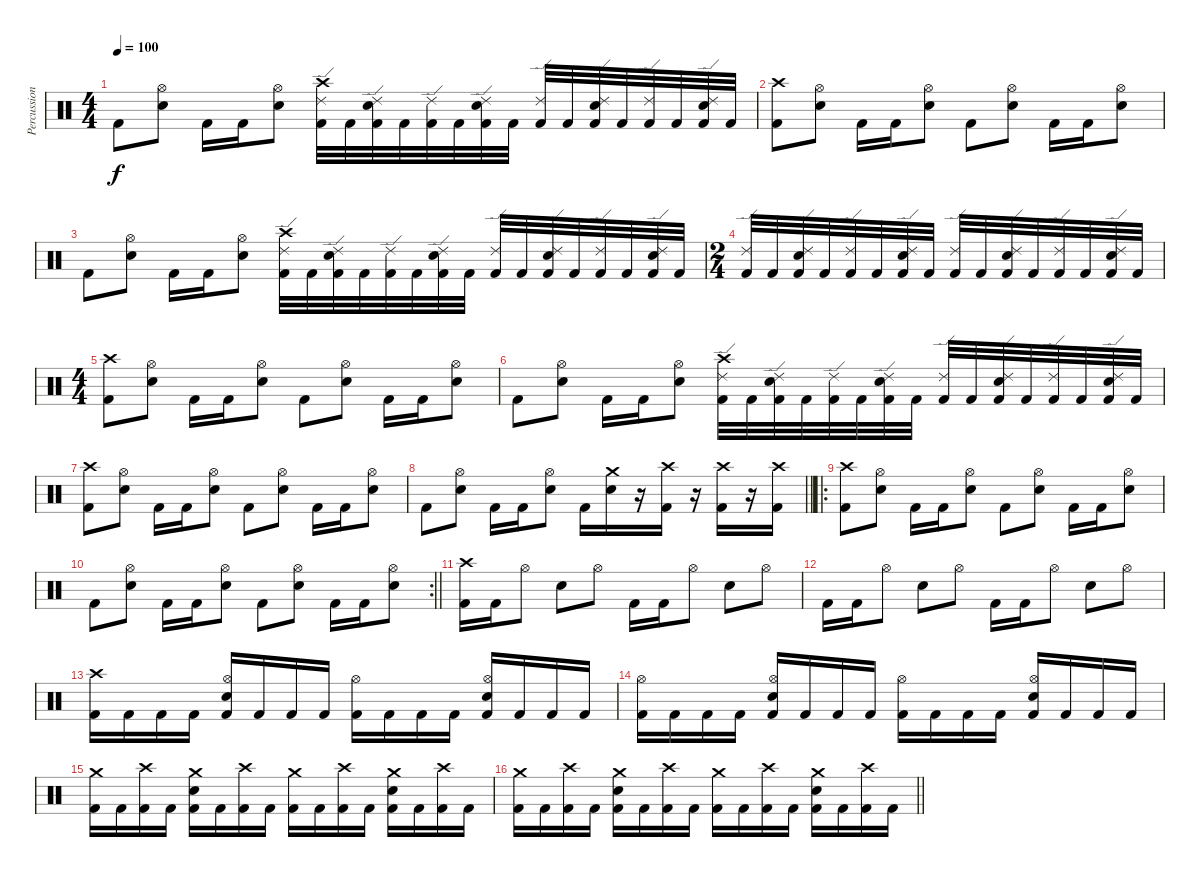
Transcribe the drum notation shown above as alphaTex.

\track ("Percussion" "Percussion") {instrument percussion}
\staff {score}
\articulation defaults
\ts (4 4)
\tempo 100
\clef neutral
\ks c "Kick (hit) 2".8{dy f}
("Hi-Hat (open)" "Snare (hit) 2").8 "Kick (hit) 2".16 "Kick (hit) 2".16 ("Hi-Hat (open)" "Snare (hit) 2").8 ("Ride (edge) 2" "Crash high (hit)" "Kick (hit) 2").32 "Kick (hit) 2".32 ("Ride (edge) 2" "Snare (hit) 2" "Kick (hit) 2").32 "Kick (hit) 2".32 ("Ride (edge) 2" "Kick (hit) 2").32 "Kick (hit) 2".32 ("Ride (edge) 2" "Snare (hit) 2" "Kick (hit) 2").32 "Kick (hit) 2".32 ("Ride (edge) 2" "Kick (hit) 2").32 "Kick (hit) 2".32 ("Ride (edge) 2" "Snare (hit) 2" "Kick (hit) 2").32 "Kick (hit) 2".32 ("Ride (edge) 2" "Kick (hit) 2").32 "Kick (hit) 2".32 ("Ride (edge) 2" "Snare (hit) 2" "Kick (hit) 2").32 "Kick (hit) 2".32 |
("Crash high (hit)" "Kick (hit) 2").8 ("Hi-Hat (open)" "Snare (hit) 2").8 "Kick (hit) 2".16 "Kick (hit) 2".16 ("Hi-Hat (open)" "Snare (hit) 2").8 "Kick (hit) 2".8 ("Hi-Hat (open)" "Snare (hit) 2").8 "Kick (hit) 2".16 "Kick (hit) 2".16 ("Hi-Hat (open)" "Snare (hit) 2").8 |
"Kick (hit) 2".8 ("Hi-Hat (open)" "Snare (hit) 2").8 "Kick (hit) 2".16 "Kick (hit) 2".16 ("Hi-Hat (open)" "Snare (hit) 2").8 ("Ride (edge) 2" "Crash high (hit)" "Kick (hit) 2").32 "Kick (hit) 2".32 ("Ride (edge) 2" "Snare (hit) 2" "Kick (hit) 2").32 "Kick (hit) 2".32 ("Ride (edge) 2" "Kick (hit) 2").32 "Kick (hit) 2".32 ("Ride (edge) 2" "Snare (hit) 2" "Kick (hit) 2").32 "Kick (hit) 2".32 ("Ride (edge) 2" "Kick (hit) 2").32 "Kick (hit) 2".32 ("Ride (edge) 2" "Snare (hit) 2" "Kick (hit) 2").32 "Kick (hit) 2".32 ("Ride (edge) 2" "Kick (hit) 2").32 "Kick (hit) 2".32 ("Ride (edge) 2" "Snare (hit) 2" "Kick (hit) 2").32 "Kick (hit) 2".32 |
\ts (2 4)
("Ride (edge) 2" "Kick (hit) 2").32 "Kick (hit) 2".32 ("Ride (edge) 2" "Snare (hit) 2" "Kick (hit) 2").32 "Kick (hit) 2".32 ("Ride (edge) 2" "Kick (hit) 2").32 "Kick (hit) 2".32 ("Ride (edge) 2" "Snare (hit) 2" "Kick (hit) 2").32 "Kick (hit) 2".32 ("Ride (edge) 2" "Kick (hit) 2").32 "Kick (hit) 2".32 ("Ride (edge) 2" "Snare (hit) 2" "Kick (hit) 2").32 "Kick (hit) 2".32 ("Ride (edge) 2" "Kick (hit) 2").32 "Kick (hit) 2".32 ("Ride (edge) 2" "Snare (hit) 2" "Kick (hit) 2").32 "Kick (hit) 2".32 |
\ts (4 4)
("Crash high (hit)" "Kick (hit) 2").8 ("Hi-Hat (open)" "Snare (hit) 2").8 "Kick (hit) 2".16 "Kick (hit) 2".16 ("Hi-Hat (open)" "Snare (hit) 2").8 "Kick (hit) 2".8 ("Hi-Hat (open)" "Snare (hit) 2").8 "Kick (hit) 2".16 "Kick (hit) 2".16 ("Hi-Hat (open)" "Snare (hit) 2").8 |
"Kick (hit) 2".8 ("Hi-Hat (open)" "Snare (hit) 2").8 "Kick (hit) 2".16 "Kick (hit) 2".16 ("Hi-Hat (open)" "Snare (hit) 2").8 ("Ride (edge) 2" "Crash high (hit)" "Kick (hit) 2").32 "Kick (hit) 2".32 ("Ride (edge) 2" "Snare (hit) 2" "Kick (hit) 2").32 "Kick (hit) 2".32 ("Ride (edge) 2" "Kick (hit) 2").32 "Kick (hit) 2".32 ("Ride (edge) 2" "Snare (hit) 2" "Kick (hit) 2").32 "Kick (hit) 2".32 ("Ride (edge) 2" "Kick (hit) 2").32 "Kick (hit) 2".32 ("Ride (edge) 2" "Snare (hit) 2" "Kick (hit) 2").32 "Kick (hit) 2".32 ("Ride (edge) 2" "Kick (hit) 2").32 "Kick (hit) 2".32 ("Ride (edge) 2" "Snare (hit) 2" "Kick (hit) 2").32 "Kick (hit) 2".32 |
("Crash high (hit)" "Kick (hit) 2").8 ("Hi-Hat (open)" "Snare (hit) 2").8 "Kick (hit) 2".16 "Kick (hit) 2".16 ("Hi-Hat (open)" "Snare (hit) 2").8 "Kick (hit) 2".8 ("Hi-Hat (open)" "Snare (hit) 2").8 "Kick (hit) 2".16 "Kick (hit) 2".16 ("Hi-Hat (open)" "Snare (hit) 2").8 |
\barLineRight lightlight "Kick (hit) 2".8
("Hi-Hat (open)" "Snare (hit) 2").8 "Kick (hit) 2".16 "Kick (hit) 2".16 ("Hi-Hat (open)" "Snare (hit) 2").8 "Kick (hit) 2".16 ("Snare (hit) 2" "Crash medium (hit)").16 r.16 ("Kick (hit) 2" "Crash high (hit)").16 r.16 ("Kick (hit) 2" "Crash high (hit)").16 r.16 ("Kick (hit) 2" "Crash high (hit)").16 |
\ro
\section ("" "")
("Crash high (hit)" "Kick (hit) 2").8 ("Hi-Hat (open)" "Snare (hit) 2").8 "Kick (hit) 2".16 "Kick (hit) 2".16 ("Hi-Hat (open)" "Snare (hit) 2").8 "Kick (hit) 2".8 ("Hi-Hat (open)" "Snare (hit) 2").8 "Kick (hit) 2".16 "Kick (hit) 2".16 ("Hi-Hat (open)" "Snare (hit) 2").8 |
\rc 2
\barLineRight lightlight "Kick (hit) 2".8
("Hi-Hat (open)" "Snare (hit) 2").8 "Kick (hit) 2".16 "Kick (hit) 2".16 ("Hi-Hat (open)" "Snare (hit) 2").8 "Kick (hit) 2".8 ("Hi-Hat (open)" "Snare (hit) 2").8 "Kick (hit) 2".16 "Kick (hit) 2".16 ("Hi-Hat (open)" "Snare (hit) 2").8 |
\section ("" "")
("Crash high (hit)" "Kick (hit) 2").16 "Kick (hit) 2".16 "Hi-Hat (open)".8 "Snare (hit) 2".8 "Hi-Hat (open)".8 "Kick (hit) 2".16 "Kick (hit) 2".16 "Hi-Hat (open)".8 "Snare (hit) 2".8 "Hi-Hat (open)".8 |
"Kick (hit) 2".16 "Kick (hit) 2".16 "Hi-Hat (open)".8 "Snare (hit) 2".8 "Hi-Hat (open)".8 "Kick (hit) 2".16 "Kick (hit) 2".16 "Hi-Hat (open)".8 "Snare (hit) 2".8 "Hi-Hat (open)".8 |
("Kick (hit) 2" "Crash high (hit)").16 "Kick (hit) 2".16 "Kick (hit) 2".16 "Kick (hit) 2".16 ("Kick (hit) 2" "Snare (hit) 2" "Hi-Hat (open)").16 "Kick (hit) 2".16 "Kick (hit) 2".16 "Kick (hit) 2".16 ("Kick (hit) 2" "Hi-Hat (open)").16 "Kick (hit) 2".16 "Kick (hit) 2".16 "Kick (hit) 2".16 ("Kick (hit) 2" "Snare (hit) 2" "Hi-Hat (open)").16 "Kick (hit) 2".16 "Kick (hit) 2".16 "Kick (hit) 2".16 |
("Kick (hit) 2" "Hi-Hat (open)").16 "Kick (hit) 2".16 "Kick (hit) 2".16 "Kick (hit) 2".16 ("Kick (hit) 2" "Snare (hit) 2" "Hi-Hat (open)").16 "Kick (hit) 2".16 "Kick (hit) 2".16 "Kick (hit) 2".16 ("Kick (hit) 2" "Hi-Hat (open)").16 "Kick (hit) 2".16 "Kick (hit) 2".16 "Kick (hit) 2".16 ("Kick (hit) 2" "Snare (hit) 2" "Hi-Hat (open)").16 "Kick (hit) 2".16 "Kick (hit) 2".16 "Kick (hit) 2".16 |
("Kick (hit) 2" "Crash medium (hit)").16 "Kick (hit) 2".16 ("Kick (hit) 2" "Crash high (hit)").16 "Kick (hit) 2".16 ("Kick (hit) 2" "Snare (hit) 2" "Crash medium (hit)").16 "Kick (hit) 2".16 ("Kick (hit) 2" "Crash high (hit)").16 "Kick (hit) 2".16 ("Kick (hit) 2" "Crash medium (hit)").16 "Kick (hit) 2".16 ("Kick (hit) 2" "Crash high (hit)").16 "Kick (hit) 2".16 ("Kick (hit) 2" "Snare (hit) 2" "Crash medium (hit)").16 "Kick (hit) 2".16 ("Kick (hit) 2" "Crash high (hit)").16 "Kick (hit) 2".16 |
\barLineRight lightlight
("Kick (hit) 2" "Crash medium (hit)").16 "Kick (hit) 2".16 ("Kick (hit) 2" "Crash high (hit)").16 "Kick (hit) 2".16 ("Kick (hit) 2" "Snare (hit) 2" "Crash medium (hit)").16 "Kick (hit) 2".16 ("Kick (hit) 2" "Crash high (hit)").16 "Kick (hit) 2".16 ("Kick (hit) 2" "Crash medium (hit)").16 "Kick (hit) 2".16 ("Kick (hit) 2" "Crash high (hit)").16 "Kick (hit) 2".16 ("Kick (hit) 2" "Snare (hit) 2" "Crash medium (hit)").16 "Kick (hit) 2".16 ("Kick (hit) 2" "Crash high (hit)").16 "Kick (hit) 2".16
